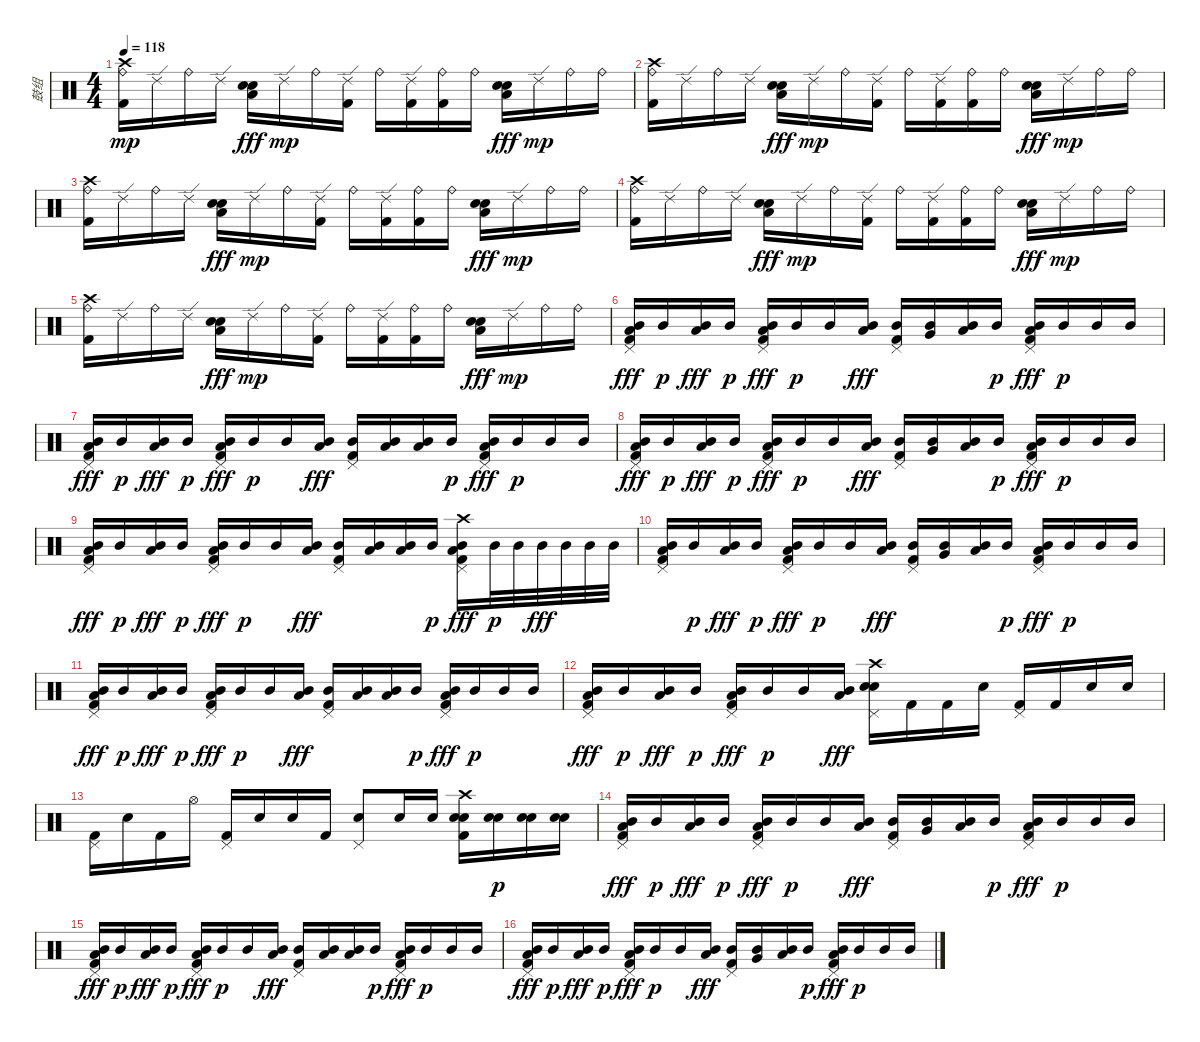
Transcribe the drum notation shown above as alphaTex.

\track ("鼓组" "鼓组") {instrument percussion}
\staff {score}
\articulation defaults
\ts (4 4)
\tempo 118
\clef neutral
\ks c
("Ride (bell)" "Crash high (hit)" "Kick (hit) 2").16{dy mp} "Ride (edge) 2".16 "Ride (bell)".16 "Ride (edge) 2".16 ("Low Tom (hit)" "Snare (hit) 2" "Electric Snare (hit)").16{dy fff} "Ride (edge) 2".16{dy mp} "Ride (bell)".16 ("Ride (edge) 2" "Kick (hit) 2").16 "Ride (bell)".16 ("Ride (edge) 2" "Kick (hit) 2").16 ("Ride (bell)" "Kick (hit) 2").16 "Ride (bell)".16 ("Low Tom (hit)" "Electric Snare (hit)" "Snare (hit) 2").16{dy fff} "Ride (edge) 2".16{dy mp} "Ride (bell)".16 "Ride (bell)".16 |
("Ride (bell)" "Crash high (hit)" "Kick (hit) 2").16 "Ride (edge) 2".16 "Ride (bell)".16 "Ride (edge) 2".16 ("Low Tom (hit)" "Snare (hit) 2" "Electric Snare (hit)").16{dy fff} "Ride (edge) 2".16{dy mp} "Ride (bell)".16 ("Ride (edge) 2" "Kick (hit) 2").16 "Ride (bell)".16 ("Ride (edge) 2" "Kick (hit) 2").16 ("Ride (bell)" "Kick (hit) 2").16 "Ride (bell)".16 ("Low Tom (hit)" "Electric Snare (hit)" "Snare (hit) 2").16{dy fff} "Ride (edge) 2".16{dy mp} "Ride (bell)".16 "Ride (bell)".16 |
("Ride (bell)" "Crash high (hit)" "Kick (hit) 2").16 "Ride (edge) 2".16 "Ride (bell)".16 "Ride (edge) 2".16 ("Low Tom (hit)" "Snare (hit) 2" "Electric Snare (hit)").16{dy fff} "Ride (edge) 2".16{dy mp} "Ride (bell)".16 ("Ride (edge) 2" "Kick (hit) 2").16 "Ride (bell)".16 ("Ride (edge) 2" "Kick (hit) 2").16 ("Ride (bell)" "Kick (hit) 2").16 "Ride (bell)".16 ("Low Tom (hit)" "Electric Snare (hit)" "Snare (hit) 2").16{dy fff} "Ride (edge) 2".16{dy mp} "Ride (bell)".16 "Ride (bell)".16 |
("Ride (bell)" "Crash high (hit)" "Kick (hit) 2").16 "Ride (edge) 2".16 "Ride (bell)".16 "Ride (edge) 2".16 ("Low Tom (hit)" "Snare (hit) 2" "Electric Snare (hit)").16{dy fff} "Ride (edge) 2".16{dy mp} "Ride (bell)".16 ("Ride (edge) 2" "Kick (hit) 2").16 "Ride (bell)".16 ("Ride (edge) 2" "Kick (hit) 2").16 ("Ride (bell)" "Kick (hit) 2").16 "Ride (bell)".16 ("Low Tom (hit)" "Electric Snare (hit)" "Snare (hit) 2").16{dy fff} "Ride (edge) 2".16{dy mp} "Ride (bell)".16 "Ride (bell)".16 |
("Ride (bell)" "Crash high (hit)" "Kick (hit) 2").16 "Ride (edge) 2".16 "Ride (bell)".16 "Ride (edge) 2".16 ("Low Tom (hit)" "Snare (hit) 2" "Electric Snare (hit)").16{dy fff} "Ride (edge) 2".16{dy mp} "Ride (bell)".16 ("Ride (edge) 2" "Kick (hit) 2").16 "Ride (bell)".16 ("Ride (edge) 2" "Kick (hit) 2").16 ("Ride (bell)" "Kick (hit) 2").16 "Ride (bell)".16 ("Low Tom (hit)" "Electric Snare (hit)" "Snare (hit) 2").16{dy fff} "Ride (edge) 2".16{dy mp} "Ride (bell)".16 "Ride (bell)".16 |
("Pedal Hi-Hat (hit)" "Mid Tom (hit)" "Low Floor Tom (hit)" "Kick (hit) 2").16{dy fff} "Mid Tom (hit)".16{dy p} ("Mid Tom (hit)" "Low Floor Tom (hit)").16{dy fff} "Mid Tom (hit)".16{dy p} ("Low Tom (hit)" "Mid Tom (hit)" "Pedal Hi-Hat (hit)" "Kick (hit) 2").16{dy fff} "Mid Tom (hit)".16{dy p} "Mid Tom (hit)".16 ("Mid Tom (hit)" "Low Tom (hit)").16{dy fff} ("Pedal Hi-Hat (hit)" "Mid Tom (hit)" "Kick (hit) 2").16 ("Mid Tom (hit)" "Very Low Tom (hit)").16 ("Mid Tom (hit)" "Low Floor Tom (hit)").16 "Mid Tom (hit)".16{dy p} ("Low Tom (hit)" "Mid Tom (hit)" "Pedal Hi-Hat (hit)" "Kick (hit) 2").16{dy fff} "Mid Tom (hit)".16{dy p} "Mid Tom (hit)".16 "Mid Tom (hit)".16 |
("Pedal Hi-Hat (hit)" "Mid Tom (hit)" "Low Floor Tom (hit)" "Kick (hit) 2").16{dy fff} "Mid Tom (hit)".16{dy p} ("Mid Tom (hit)" "Low Floor Tom (hit)").16{dy fff} "Mid Tom (hit)".16{dy p} ("Low Tom (hit)" "Mid Tom (hit)" "Pedal Hi-Hat (hit)" "Kick (hit) 2").16{dy fff} "Mid Tom (hit)".16{dy p} "Mid Tom (hit)".16 ("Mid Tom (hit)" "Low Tom (hit)").16{dy fff} ("Pedal Hi-Hat (hit)" "Mid Tom (hit)" "Kick (hit) 2").16 ("Mid Tom (hit)" "Low Tom (hit)").16 ("Mid Tom (hit)" "Low Tom (hit)").16 "Mid Tom (hit)".16{dy p} ("Low Tom (hit)" "Mid Tom (hit)" "Pedal Hi-Hat (hit)" "Kick (hit) 2").16{dy fff} "Mid Tom (hit)".16{dy p} "Mid Tom (hit)".16 "Mid Tom (hit)".16 |
("Pedal Hi-Hat (hit)" "Mid Tom (hit)" "Low Floor Tom (hit)" "Kick (hit) 2").16{dy fff} "Mid Tom (hit)".16{dy p} ("Mid Tom (hit)" "Low Floor Tom (hit)").16{dy fff} "Mid Tom (hit)".16{dy p} ("Low Tom (hit)" "Mid Tom (hit)" "Pedal Hi-Hat (hit)" "Kick (hit) 2").16{dy fff} "Mid Tom (hit)".16{dy p} "Mid Tom (hit)".16 ("Mid Tom (hit)" "Low Tom (hit)").16{dy fff} ("Pedal Hi-Hat (hit)" "Mid Tom (hit)" "Kick (hit) 2").16 ("Mid Tom (hit)" "Very Low Tom (hit)").16 ("Mid Tom (hit)" "Low Floor Tom (hit)").16 "Mid Tom (hit)".16{dy p} ("Low Tom (hit)" "Mid Tom (hit)" "Pedal Hi-Hat (hit)" "Kick (hit) 2").16{dy fff} "Mid Tom (hit)".16{dy p} "Mid Tom (hit)".16 "Mid Tom (hit)".16 |
("Pedal Hi-Hat (hit)" "Mid Tom (hit)" "Low Floor Tom (hit)" "Kick (hit) 2").16{dy fff} "Mid Tom (hit)".16{dy p} ("Mid Tom (hit)" "Low Floor Tom (hit)").16{dy fff} "Mid Tom (hit)".16{dy p} ("Low Tom (hit)" "Mid Tom (hit)" "Pedal Hi-Hat (hit)" "Kick (hit) 2").16{dy fff} "Mid Tom (hit)".16{dy p} "Mid Tom (hit)".16 ("Mid Tom (hit)" "Low Tom (hit)").16{dy fff} ("Pedal Hi-Hat (hit)" "Mid Tom (hit)" "Kick (hit) 2").16 ("Mid Tom (hit)" "Low Tom (hit)").16 ("Mid Tom (hit)" "Low Tom (hit)").16 "Mid Tom (hit)".16{dy p} ("Low Tom (hit)" "Mid Tom (hit)" "Pedal Hi-Hat (hit)" "Crash high (hit)" "Kick (hit) 2").16{dy fff} "Mid Tom (hit)".32{dy p} "Mid Tom (hit)".32 "Mid Tom (hit)".32{dy fff} "Mid Tom (hit)".32 "Mid Tom (hit)".32 "Mid Tom (hit)".32 |
("Pedal Hi-Hat (hit)" "Mid Tom (hit)" "Low Floor Tom (hit)" "Kick (hit) 2").16 "Mid Tom (hit)".16{dy p} ("Mid Tom (hit)" "Low Floor Tom (hit)").16{dy fff} "Mid Tom (hit)".16{dy p} ("Low Tom (hit)" "Mid Tom (hit)" "Pedal Hi-Hat (hit)" "Kick (hit) 2").16{dy fff} "Mid Tom (hit)".16{dy p} "Mid Tom (hit)".16 ("Mid Tom (hit)" "Low Tom (hit)").16{dy fff} ("Pedal Hi-Hat (hit)" "Mid Tom (hit)" "Kick (hit) 2").16 ("Mid Tom (hit)" "Very Low Tom (hit)").16 ("Mid Tom (hit)" "Low Floor Tom (hit)").16 "Mid Tom (hit)".16{dy p} ("Low Tom (hit)" "Mid Tom (hit)" "Pedal Hi-Hat (hit)" "Kick (hit) 2").16{dy fff} "Mid Tom (hit)".16{dy p} "Mid Tom (hit)".16 "Mid Tom (hit)".16 |
("Pedal Hi-Hat (hit)" "Mid Tom (hit)" "Low Floor Tom (hit)" "Kick (hit) 2").16{dy fff} "Mid Tom (hit)".16{dy p} ("Mid Tom (hit)" "Low Floor Tom (hit)").16{dy fff} "Mid Tom (hit)".16{dy p} ("Low Tom (hit)" "Mid Tom (hit)" "Pedal Hi-Hat (hit)" "Kick (hit) 2").16{dy fff} "Mid Tom (hit)".16{dy p} "Mid Tom (hit)".16 ("Mid Tom (hit)" "Low Tom (hit)").16{dy fff} ("Pedal Hi-Hat (hit)" "Mid Tom (hit)" "Kick (hit) 2").16 ("Mid Tom (hit)" "Low Tom (hit)").16 ("Mid Tom (hit)" "Low Tom (hit)").16 "Mid Tom (hit)".16{dy p} ("Low Tom (hit)" "Mid Tom (hit)" "Pedal Hi-Hat (hit)" "Kick (hit) 2").16{dy fff} "Mid Tom (hit)".16{dy p} "Mid Tom (hit)".16 "Mid Tom (hit)".16 |
("Pedal Hi-Hat (hit)" "Mid Tom (hit)" "Low Floor Tom (hit)" "Kick (hit) 2").16{dy fff} "Mid Tom (hit)".16{dy p} ("Mid Tom (hit)" "Low Floor Tom (hit)").16{dy fff} "Mid Tom (hit)".16{dy p} ("Low Tom (hit)" "Mid Tom (hit)" "Pedal Hi-Hat (hit)" "Kick (hit) 2").16{dy fff} "Mid Tom (hit)".16{dy p} "Mid Tom (hit)".16 ("Mid Tom (hit)" "Low Tom (hit)").16{dy fff} ("Pedal Hi-Hat (hit)" "Snare (hit) 2" "Electric Snare (hit)" "Crash high (hit)").16 "Kick (hit) 2".16 "Kick (hit) 2".16 "Snare (hit) 2".16 ("Pedal Hi-Hat (hit)" "Kick (hit) 2").16 "Kick (hit) 2".16 "Snare (hit) 2".16 "Snare (hit) 2".16 |
("Pedal Hi-Hat (hit)" "Kick (hit) 2").16 "Snare (hit) 2".16 "Kick (hit) 2".16 "Hi-Hat (open)".16 ("Pedal Hi-Hat (hit)" "Kick (hit) 2").16 "Snare (hit) 2".16 "Snare (hit) 2".16 "Kick (hit) 2".16 ("Pedal Hi-Hat (hit)" "Snare (hit) 2").8 "Snare (hit) 2".16 "Snare (hit) 2".16 ("Electric Snare (hit)" "Snare (hit) 2" "Crash high (hit)" "Kick (hit) 2").16 ("Electric Snare (hit)" "Snare (hit) 2").16{dy p} ("Electric Snare (hit)" "Snare (hit) 2").16 ("Electric Snare (hit)" "Snare (hit) 2").16 |
("Pedal Hi-Hat (hit)" "Mid Tom (hit)" "Low Floor Tom (hit)" "Kick (hit) 2").16{dy fff} "Mid Tom (hit)".16{dy p} ("Mid Tom (hit)" "Low Floor Tom (hit)").16{dy fff} "Mid Tom (hit)".16{dy p} ("Low Tom (hit)" "Mid Tom (hit)" "Pedal Hi-Hat (hit)" "Kick (hit) 2").16{dy fff} "Mid Tom (hit)".16{dy p} "Mid Tom (hit)".16 ("Mid Tom (hit)" "Low Tom (hit)").16{dy fff} ("Pedal Hi-Hat (hit)" "Mid Tom (hit)" "Kick (hit) 2").16 ("Mid Tom (hit)" "Very Low Tom (hit)").16 ("Mid Tom (hit)" "Low Floor Tom (hit)").16 "Mid Tom (hit)".16{dy p} ("Low Tom (hit)" "Mid Tom (hit)" "Pedal Hi-Hat (hit)" "Kick (hit) 2").16{dy fff} "Mid Tom (hit)".16{dy p} "Mid Tom (hit)".16 "Mid Tom (hit)".16 |
("Pedal Hi-Hat (hit)" "Mid Tom (hit)" "Low Floor Tom (hit)" "Kick (hit) 2").16{dy fff} "Mid Tom (hit)".16{dy p} ("Mid Tom (hit)" "Low Floor Tom (hit)").16{dy fff} "Mid Tom (hit)".16{dy p} ("Low Tom (hit)" "Mid Tom (hit)" "Pedal Hi-Hat (hit)" "Kick (hit) 2").16{dy fff} "Mid Tom (hit)".16{dy p} "Mid Tom (hit)".16 ("Mid Tom (hit)" "Low Tom (hit)").16{dy fff} ("Pedal Hi-Hat (hit)" "Mid Tom (hit)" "Kick (hit) 2").16 ("Mid Tom (hit)" "Low Tom (hit)").16 ("Mid Tom (hit)" "Low Tom (hit)").16 "Mid Tom (hit)".16{dy p} ("Low Tom (hit)" "Mid Tom (hit)" "Pedal Hi-Hat (hit)" "Kick (hit) 2").16{dy fff} "Mid Tom (hit)".16{dy p} "Mid Tom (hit)".16 "Mid Tom (hit)".16 |
("Pedal Hi-Hat (hit)" "Mid Tom (hit)" "Low Floor Tom (hit)" "Kick (hit) 2").16{dy fff} "Mid Tom (hit)".16{dy p} ("Mid Tom (hit)" "Low Floor Tom (hit)").16{dy fff} "Mid Tom (hit)".16{dy p} ("Low Tom (hit)" "Mid Tom (hit)" "Pedal Hi-Hat (hit)" "Kick (hit) 2").16{dy fff} "Mid Tom (hit)".16{dy p} "Mid Tom (hit)".16 ("Mid Tom (hit)" "Low Tom (hit)").16{dy fff} ("Pedal Hi-Hat (hit)" "Mid Tom (hit)" "Kick (hit) 2").16 ("Mid Tom (hit)" "Very Low Tom (hit)").16 ("Mid Tom (hit)" "Low Floor Tom (hit)").16 "Mid Tom (hit)".16{dy p} ("Low Tom (hit)" "Mid Tom (hit)" "Pedal Hi-Hat (hit)" "Kick (hit) 2").16{dy fff} "Mid Tom (hit)".16{dy p} "Mid Tom (hit)".16 "Mid Tom (hit)".16
